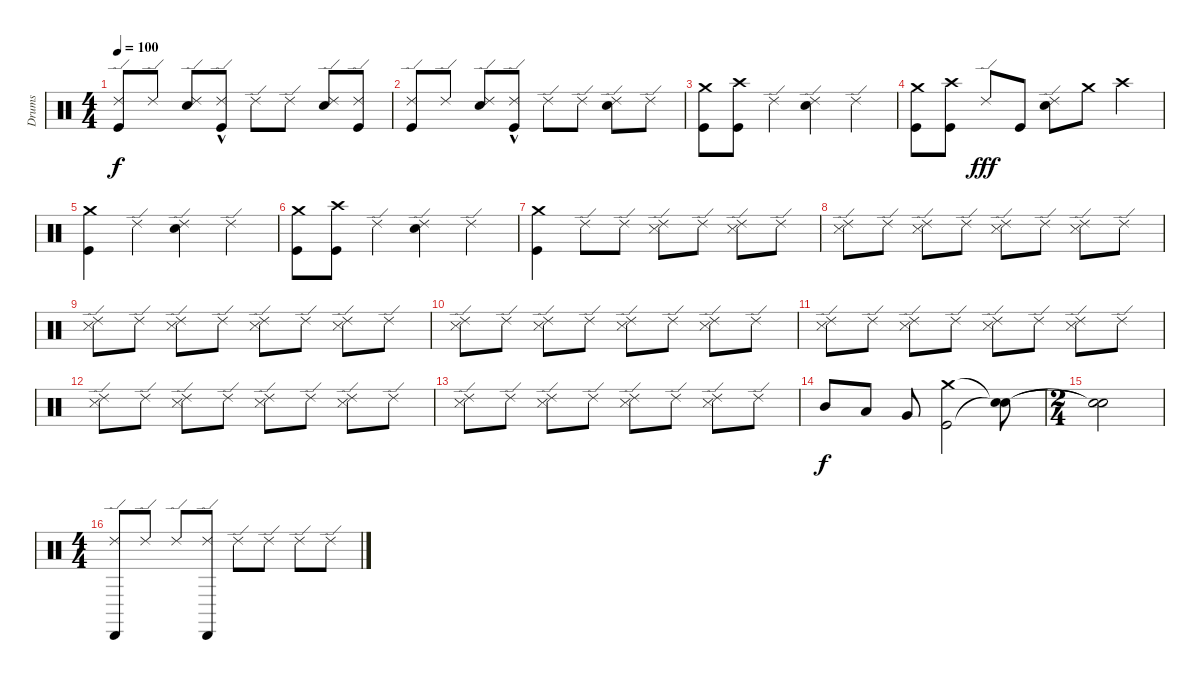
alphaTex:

\track ("Drums" "Drums") {instrument percussion}
\staff {score}
\articulation defaults
\ts (4 4)
\tempo 100
\clef neutral
\ks c
("Ride (edge) 2" "Kick (hit)").8{dy f} "Ride (edge) 2".8 ("Electric Snare (hit)" "Ride (edge) 2").8 ("Kick (hit)"{hac} "Ride (edge) 2").8 "Ride (edge) 2".8 "Ride (edge) 2".8 ("Electric Snare (hit)" "Ride (edge) 2").8 ("Kick (hit)" "Ride (edge) 2").8 |
("Kick (hit)" "Ride (edge) 2").8 "Ride (edge) 2".8 ("Electric Snare (hit)" "Ride (edge) 2").8 ("Kick (hit)"{hac} "Ride (edge) 2").8 "Ride (edge) 2".8 "Ride (edge) 2".8 ("Electric Snare (hit)" "Ride (edge) 2").8 "Ride (edge) 2".8 |
("Kick (hit)" "Crash medium (hit)").8 ("Kick (hit)" "Crash high (hit)").8 "Ride (edge) 2".4 ("Electric Snare (hit)" "Ride (edge) 2").4 "Ride (edge) 2".4 |
("Kick (hit)" "Crash medium (hit)").8 ("Kick (hit)" "Crash high (hit)").8 "Ride (edge) 2".8{dy fff} "Kick (hit)".8 ("Ride (edge) 2" "Electric Snare (hit)").8 "Crash medium (hit)".8 "Crash high (hit)".4 |
("Kick (hit)" "Crash medium (hit)").4 "Ride (edge) 2".4 ("Electric Snare (hit)" "Ride (edge) 2").4 "Ride (edge) 2".4 |
("Kick (hit)" "Crash medium (hit)").8 ("Kick (hit)" "Crash high (hit)").8 "Ride (edge) 2".4 ("Electric Snare (hit)" "Ride (edge) 2").4 "Ride (edge) 2".4 |
("Kick (hit)" "Crash medium (hit)").4 "Ride (edge) 2".8 "Ride (edge) 2".8 ("Ride (edge) 2" "Snare (side stick) 3").8 "Ride (edge) 2".8 ("Snare (side stick) 3" "Ride (edge) 2").8 "Ride (edge) 2".8 |
("Ride (edge) 2" "Snare (side stick) 3").8 "Ride (edge) 2".8 ("Ride (edge) 2" "Snare (side stick) 3").8 "Ride (edge) 2".8 ("Ride (edge) 2" "Snare (side stick) 3").8 "Ride (edge) 2".8 ("Ride (edge) 2" "Snare (side stick) 3").8 "Ride (edge) 2".8 |
("Ride (edge) 2" "Snare (side stick) 3").8 "Ride (edge) 2".8 ("Ride (edge) 2" "Snare (side stick) 3").8 "Ride (edge) 2".8 ("Ride (edge) 2" "Snare (side stick) 3").8 "Ride (edge) 2".8 ("Ride (edge) 2" "Snare (side stick) 3").8 "Ride (edge) 2".8 |
("Ride (edge) 2" "Snare (side stick) 3").8 "Ride (edge) 2".8 ("Ride (edge) 2" "Snare (side stick) 3").8 "Ride (edge) 2".8 ("Ride (edge) 2" "Snare (side stick) 3").8 "Ride (edge) 2".8 ("Ride (edge) 2" "Snare (side stick) 3").8 "Ride (edge) 2".8 |
("Ride (edge) 2" "Snare (side stick) 3").8 "Ride (edge) 2".8 ("Ride (edge) 2" "Snare (side stick) 3").8 "Ride (edge) 2".8 ("Ride (edge) 2" "Snare (side stick) 3").8 "Ride (edge) 2".8 ("Ride (edge) 2" "Snare (side stick) 3").8 "Ride (edge) 2".8 |
("Ride (edge) 2" "Snare (side stick) 3").8 "Ride (edge) 2".8 ("Ride (edge) 2" "Snare (side stick) 3").8 "Ride (edge) 2".8 ("Ride (edge) 2" "Snare (side stick) 3").8 "Ride (edge) 2".8 ("Ride (edge) 2" "Snare (side stick) 3").8 "Ride (edge) 2".8 |
("Ride (edge) 2" "Snare (side stick) 3").8 "Ride (edge) 2".8 ("Ride (edge) 2" "Snare (side stick) 3").8 "Ride (edge) 2".8 ("Ride (edge) 2" "Snare (side stick) 3").8 "Ride (edge) 2".8 ("Ride (edge) 2" "Snare (side stick) 3").8 "Ride (edge) 2".8 |
"Mid Tom (hit)".8{dy f} "Low Tom (hit)".8 "Very Low Tom (hit)".8 ("Crash medium (hit)" "Kick (hit)").2 ("Snare (hit)"{t} "Snare (hit)"{t}).8 |
\ts (2 4)
("Snare (hit)"{t} "Snare (hit)"{t}).2 |
\ts (4 4)
("Cabasa (hit)" "Ride (edge) 2").8 "Ride (edge) 2".8 "Ride (edge) 2".8 ("Cabasa (hit)" "Ride (edge) 2").8 "Ride (edge) 2".8 "Ride (edge) 2".8 "Ride (edge) 2".8 "Ride (edge) 2".8
